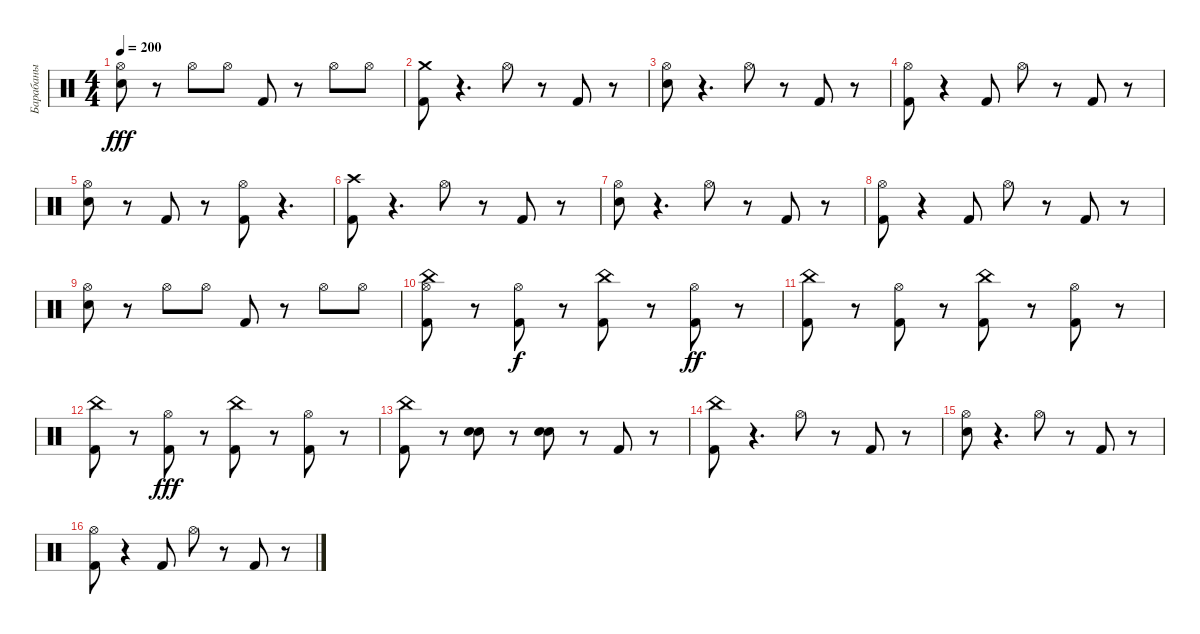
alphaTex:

\track ("Барабаны" "Барабаны") {instrument percussion}
\staff {score}
\articulation defaults
\ts (4 4)
\tempo 200
\clef neutral
\ks c
("Snare (hit) 2" "Hi-Hat (open)").8{dy fff} r.8 "Hi-Hat (open)".8 "Hi-Hat (open)".8 "Kick (hit) 2".8 r.8 "Hi-Hat (open)".8 "Hi-Hat (open)".8 |
("Kick (hit) 2" "Crash medium (hit)").8 r.4{d} "Hi-Hat (open)".8 r.8 "Kick (hit) 2".8 r.8 |
("Snare (hit) 2" "Hi-Hat (open)").8 r.4{d} "Hi-Hat (open)".8 r.8 "Kick (hit) 2".8 r.8 |
("Kick (hit) 2" "Hi-Hat (open)").8 r.4 "Kick (hit) 2".8 "Hi-Hat (open)".8 r.8 "Kick (hit) 2".8 r.8 |
("Snare (hit) 2" "Hi-Hat (open)").8 r.8 "Kick (hit) 2".8 r.8 ("Kick (hit) 2" "Hi-Hat (open)").8 r.4{d} |
("Kick (hit) 2" "Crash high (hit)").8 r.4{d} "Hi-Hat (open)".8 r.8 "Kick (hit) 2".8 r.8 |
("Snare (hit) 2" "Hi-Hat (open)").8 r.4{d} "Hi-Hat (open)".8 r.8 "Kick (hit) 2".8 r.8 |
("Kick (hit) 2" "Hi-Hat (open)").8 r.4 "Kick (hit) 2".8 "Hi-Hat (open)".8 r.8 "Kick (hit) 2".8 r.8 |
("Snare (hit) 2" "Hi-Hat (open)").8 r.8 "Hi-Hat (open)".8 "Hi-Hat (open)".8 "Kick (hit) 2".8 r.8 "Hi-Hat (open)".8 "Hi-Hat (open)".8 |
("Kick (hit) 2" "China (hit)" "Hi-Hat (open)").8 r.8 ("Kick (hit) 2" "Hi-Hat (open)").8{dy f} r.8 ("Kick (hit) 2" "China (hit)").8 r.8 ("Kick (hit) 2" "Hi-Hat (open)").8{dy ff} r.8 |
("Kick (hit) 2" "China (hit)").8 r.8 ("Kick (hit) 2" "Hi-Hat (open)").8 r.8 ("Kick (hit) 2" "China (hit)").8 r.8 ("Kick (hit) 2" "Hi-Hat (open)").8 r.8 |
("Kick (hit) 2" "China (hit)").8 r.8 ("Kick (hit) 2" "Hi-Hat (open)").8{dy fff} r.8 ("Kick (hit) 2" "China (hit)").8 r.8 ("Kick (hit) 2" "Hi-Hat (open)").8 r.8 |
("Kick (hit) 2" "China (hit)").8 r.8 ("Snare (hit) 2" "Snare (hit) 2").8 r.8 ("Snare (hit) 2" "Snare (hit) 2").8 r.8 "Kick (hit) 2".8 r.8 |
("Kick (hit) 2" "China (hit)").8 r.4{d} "Hi-Hat (open)".8 r.8 "Kick (hit) 2".8 r.8 |
("Snare (hit) 2" "Hi-Hat (open)").8 r.4{d} "Hi-Hat (open)".8 r.8 "Kick (hit) 2".8 r.8 |
("Kick (hit) 2" "Hi-Hat (open)").8 r.4 "Kick (hit) 2".8 "Hi-Hat (open)".8 r.8 "Kick (hit) 2".8 r.8
